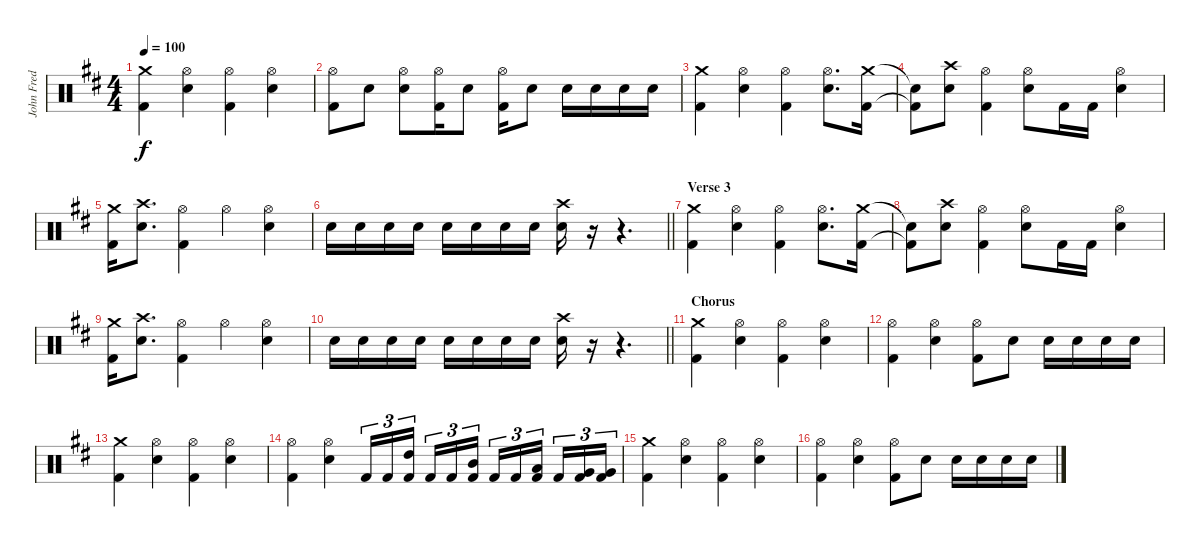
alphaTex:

\track ("John Fred Young" "John Fred ") {instrument percussion}
\staff {score}
\articulation defaults
\ts (4 4)
\tempo 100
\clef neutral
\ks bminor
("Crash medium (hit)" "Kick (hit) 2").4{dy f} ("Hi-Hat (open)" "Snare (hit) 2").4 ("Hi-Hat (open)" "Kick (hit) 2").4 ("Hi-Hat (open)" "Snare (hit) 2").4 |
("Hi-Hat (open)" "Kick (hit) 2").8 "Snare (hit) 2".8 ("Hi-Hat (open)" "Snare (hit) 2").8 ("Hi-Hat (open)" "Kick (hit) 2").16 "Snare (hit) 2".8 ("Hi-Hat (open)" "Kick (hit) 2").16 "Snare (hit) 2".8 "Snare (hit) 2".16 "Snare (hit) 2".16 "Snare (hit) 2".16 "Snare (hit) 2".16 |
("Crash medium (hit)" "Kick (hit) 2").4 ("Hi-Hat (open)" "Snare (hit) 2").4 ("Hi-Hat (open)" "Kick (hit) 2").4 ("Hi-Hat (open)" "Snare (hit) 2").8{d} ("Crash medium (hit)" "Kick (hit) 2").16 |
("Snare (hit)"{t} "Kick (hit) 2"{t}).8 ("Crash high (hit)" "Snare (hit) 2").8 ("Hi-Hat (open)" "Kick (hit) 2").4 ("Hi-Hat (open)" "Snare (hit) 2").8 "Kick (hit) 2".16 "Kick (hit) 2".16 ("Hi-Hat (open)" "Snare (hit) 2").4 |
("Crash medium (hit)" "Kick (hit) 2").16 ("Crash high (hit)" "Snare (hit) 2").8{d} ("Hi-Hat (open)" "Kick (hit) 2").4 "Hi-Hat (open)".4 ("Hi-Hat (open)" "Snare (hit) 2").4 |
\barLineRight lightlight "Snare (hit) 2".16 "Snare (hit) 2".16 "Snare (hit) 2".16 "Snare (hit) 2".16 "Snare (hit) 2".16 "Snare (hit) 2".16 "Snare (hit) 2".16 "Snare (hit) 2".16
("Crash high (hit)" "Snare (hit) 2").16 r.16 r.4{d} |
\section ("" "Verse 3")
("Crash medium (hit)" "Kick (hit) 2").4 ("Hi-Hat (open)" "Snare (hit) 2").4 ("Hi-Hat (open)" "Kick (hit) 2").4 ("Hi-Hat (open)" "Snare (hit) 2").8{d} ("Crash medium (hit)" "Kick (hit) 2").16 |
("Snare (hit)"{t} "Kick (hit) 2"{t}).8 ("Crash high (hit)" "Snare (hit) 2").8 ("Hi-Hat (open)" "Kick (hit) 2").4 ("Hi-Hat (open)" "Snare (hit) 2").8 "Kick (hit) 2".16 "Kick (hit) 2".16 ("Hi-Hat (open)" "Snare (hit) 2").4 |
("Crash medium (hit)" "Kick (hit) 2").16 ("Crash high (hit)" "Snare (hit) 2").8{d} ("Hi-Hat (open)" "Kick (hit) 2").4 "Hi-Hat (open)".4 ("Hi-Hat (open)" "Snare (hit) 2").4 |
\barLineRight lightlight "Snare (hit) 2".16 "Snare (hit) 2".16 "Snare (hit) 2".16 "Snare (hit) 2".16 "Snare (hit) 2".16 "Snare (hit) 2".16 "Snare (hit) 2".16 "Snare (hit) 2".16
("Crash high (hit)" "Snare (hit) 2").16 r.16 r.4{d} |
\section ("" "Chorus")
("Crash medium (hit)" "Kick (hit) 2").4 ("Hi-Hat (open)" "Snare (hit) 2").4 ("Hi-Hat (open)" "Kick (hit) 2").4 ("Hi-Hat (open)" "Snare (hit) 2").4 |
("Hi-Hat (open)" "Kick (hit) 2").4 ("Hi-Hat (open)" "Snare (hit) 2").4 ("Hi-Hat (open)" "Kick (hit) 2").8 "Snare (hit) 2".8 "Snare (hit) 2".16 "Snare (hit) 2".16 "Snare (hit) 2".16 "Snare (hit) 2".16 |
("Crash medium (hit)" "Kick (hit) 2").4 ("Hi-Hat (open)" "Snare (hit) 2").4 ("Hi-Hat (open)" "Kick (hit) 2").4 ("Hi-Hat (open)" "Snare (hit) 2").4 |
("Hi-Hat (open)" "Kick (hit) 2").4 ("Hi-Hat (open)" "Snare (hit) 2").4 "Kick (hit) 2".16{tu (3 2)} "Kick (hit) 2".16{tu (3 2)} ("High Tom (hit)" "Kick (hit) 2").16{tu (3 2) beam splitsecondary} "Kick (hit) 2".16{tu (3 2)} "Kick (hit) 2".16{tu (3 2)} ("Mid Tom (hit)" "Kick (hit) 2").16{tu (3 2)} "Kick (hit) 2".16{tu (3 2)} "Kick (hit) 2".16{tu (3 2)} ("Low Tom (hit)" "Kick (hit) 2").16{tu (3 2) beam splitsecondary} "Kick (hit) 2".16{tu (3 2)} ("Very Low Tom (hit)" "Kick (hit) 2").16{tu (3 2)} ("Very Low Tom (hit)" "Kick (hit) 2").16{tu (3 2)} |
("Crash medium (hit)" "Kick (hit) 2").4 ("Hi-Hat (open)" "Snare (hit) 2").4 ("Hi-Hat (open)" "Kick (hit) 2").4 ("Hi-Hat (open)" "Snare (hit) 2").4 |
("Hi-Hat (open)" "Kick (hit) 2").4 ("Hi-Hat (open)" "Snare (hit) 2").4 ("Hi-Hat (open)" "Kick (hit) 2").8 "Snare (hit) 2".8 "Snare (hit) 2".16 "Snare (hit) 2".16 "Snare (hit) 2".16 "Snare (hit) 2".16
